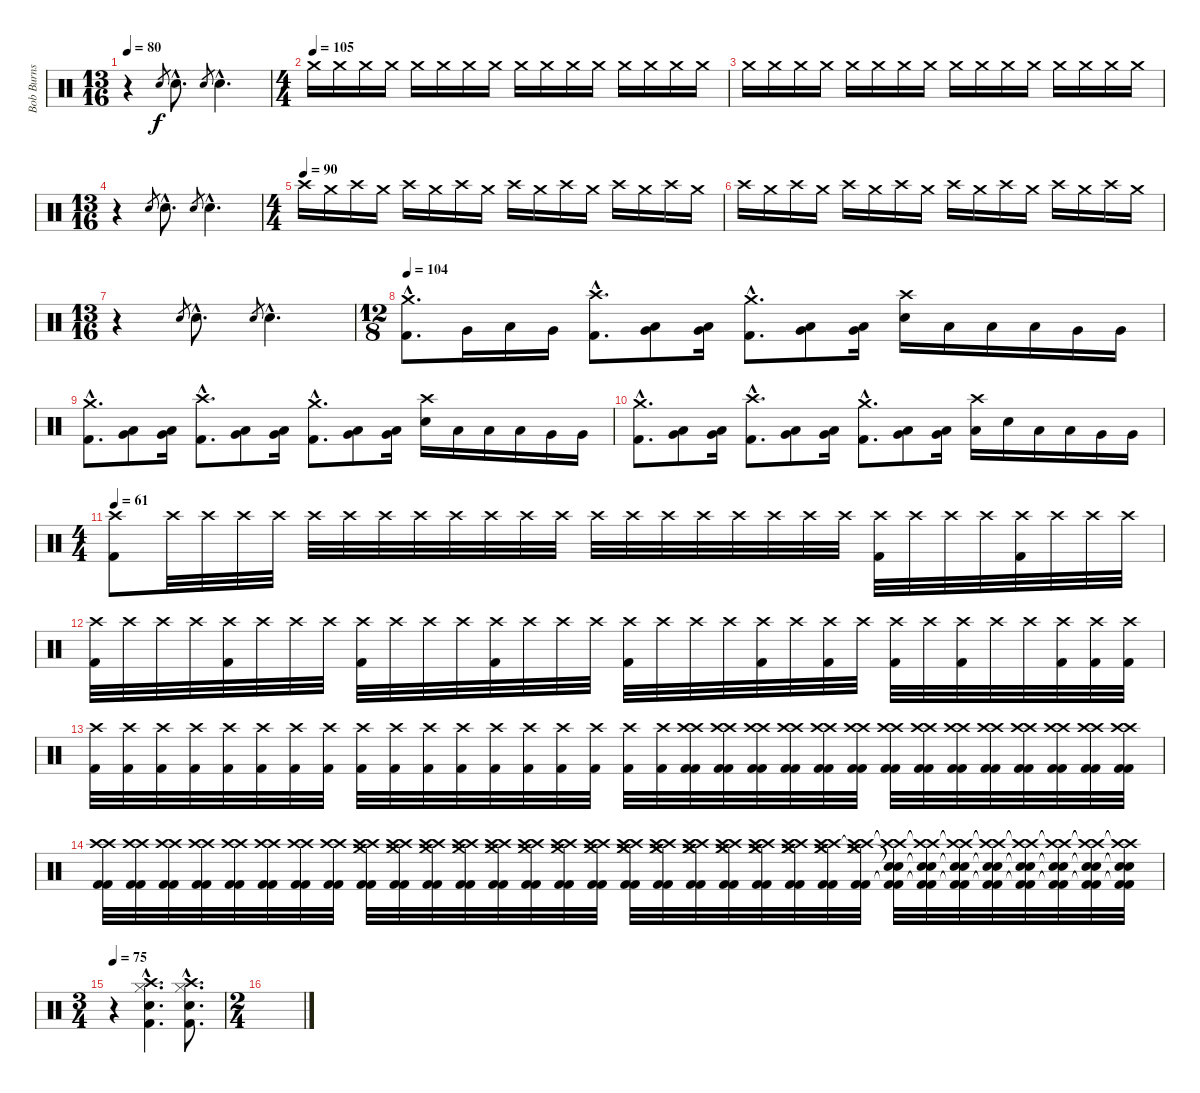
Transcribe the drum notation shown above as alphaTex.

\track ("Bob Burns (Drums)" "Bob Burns ") {instrument percussion}
\staff {score}
\articulation defaults
\ts (13 16)
\tempo 80
\clef neutral
\ks c
r.4{dy f} "Electric Snare (hit)".8{gr} "Electric Snare (hit)"{hac}.8{d} "Electric Snare (hit)".8{gr} "Electric Snare (hit)"{hac}.4{d} |
\ts (4 4)
\tempo (105)
"Crash medium (hit)".16 "Crash medium (hit)".16 "Crash medium (hit)".16 "Crash medium (hit)".16 "Crash medium (hit)".16 "Crash medium (hit)".16 "Crash medium (hit)".16 "Crash medium (hit)".16 "Crash medium (hit)".16 "Crash medium (hit)".16 "Crash medium (hit)".16 "Crash medium (hit)".16 "Crash medium (hit)".16 "Crash medium (hit)".16 "Crash medium (hit)".16 "Crash medium (hit)".16 |
"Crash medium (hit)".16 "Crash medium (hit)".16 "Crash medium (hit)".16 "Crash medium (hit)".16 "Crash medium (hit)".16 "Crash medium (hit)".16 "Crash medium (hit)".16 "Crash medium (hit)".16 "Crash medium (hit)".16 "Crash medium (hit)".16 "Crash medium (hit)".16 "Crash medium (hit)".16 "Crash medium (hit)".16 "Crash medium (hit)".16 "Crash medium (hit)".16 "Crash medium (hit)".16 |
\ts (13 16)
r.4 "Electric Snare (hit)".8{gr} "Electric Snare (hit)"{hac}.8{d} "Electric Snare (hit)".8{gr} "Electric Snare (hit)"{hac}.4{d} |
\ts (4 4)
\tempo (90)
"Crash high (hit)".16 "Crash medium (hit)".16 "Crash high (hit)".16 "Crash medium (hit)".16 "Crash high (hit)".16 "Crash medium (hit)".16 "Crash high (hit)".16 "Crash medium (hit)".16 "Crash high (hit)".16 "Crash medium (hit)".16 "Crash high (hit)".16 "Crash medium (hit)".16 "Crash high (hit)".16 "Crash medium (hit)".16 "Crash high (hit)".16 "Crash medium (hit)".16 |
"Crash high (hit)".16 "Crash medium (hit)".16 "Crash high (hit)".16 "Crash medium (hit)".16 "Crash high (hit)".16 "Crash medium (hit)".16 "Crash high (hit)".16 "Crash medium (hit)".16 "Crash high (hit)".16 "Crash medium (hit)".16 "Crash high (hit)".16 "Crash medium (hit)".16 "Crash high (hit)".16 "Crash medium (hit)".16 "Crash high (hit)".16 "Crash medium (hit)".16 |
\ts (13 16)
r.4 "Electric Snare (hit)".8{gr} "Electric Snare (hit)"{hac}.8{d} "Electric Snare (hit)".8{gr} "Electric Snare (hit)"{hac}.4{d} |
\ts (12 8)
\tempo 104
("Crash medium (hit)"{hac} "Kick (hit) 2"{hac}).8{d} "Very Low Tom (hit)".16 "Low Tom (hit)".16 "Very Low Tom (hit)".16 ("Crash high (hit)"{hac} "Kick (hit) 2"{hac}).8{d} ("Low Tom (hit)" "Very Low Tom (hit)").8 ("Low Tom (hit)" "Very Low Tom (hit)").16 ("Crash medium (hit)"{hac} "Kick (hit) 2"{hac}).8{d} ("Low Tom (hit)" "Very Low Tom (hit)").8 ("Low Tom (hit)" "Very Low Tom (hit)").16 ("Crash high (hit)" "Electric Snare (hit)").16 "Low Tom (hit)".16 "Low Tom (hit)".16 "Low Tom (hit)".16 "Very Low Tom (hit)".16 "Very Low Tom (hit)".16 |
("Crash medium (hit)"{hac} "Kick (hit) 2"{hac}).8{d} ("Low Tom (hit)" "Very Low Tom (hit)").8 ("Low Tom (hit)" "Very Low Tom (hit)").16 ("Crash high (hit)"{hac} "Kick (hit) 2"{hac}).8{d} ("Low Tom (hit)" "Very Low Tom (hit)").8 ("Low Tom (hit)" "Very Low Tom (hit)").16 ("Crash medium (hit)"{hac} "Kick (hit) 2"{hac}).8{d} ("Low Tom (hit)" "Very Low Tom (hit)").8 ("Low Tom (hit)" "Very Low Tom (hit)").16 ("Crash high (hit)" "Electric Snare (hit)").16 "Low Tom (hit)".16 "Low Tom (hit)".16 "Low Tom (hit)".16 "Very Low Tom (hit)".16 "Very Low Tom (hit)".16 |
("Crash medium (hit)"{hac} "Kick (hit) 2"{hac}).8{d} ("Low Tom (hit)" "Very Low Tom (hit)").8 ("Low Tom (hit)" "Very Low Tom (hit)").16 ("Crash high (hit)"{hac} "Kick (hit) 2"{hac}).8{d} ("Low Tom (hit)" "Very Low Tom (hit)").8 ("Low Tom (hit)" "Very Low Tom (hit)").16 ("Crash medium (hit)"{hac} "Kick (hit) 2"{hac}).8{d} ("Low Tom (hit)" "Very Low Tom (hit)").8 ("Low Tom (hit)" "Very Low Tom (hit)").16 ("Crash high (hit)" "Low Tom (hit)").16 "Electric Snare (hit)".16 "Low Tom (hit)".16 "Low Tom (hit)".16 "Very Low Tom (hit)".16 "Very Low Tom (hit)".16 |
\ts (4 4)
\tempo 61
("Crash high (hit)" "Kick (hit) 2").8 "Crash high (hit)".32 "Crash high (hit)".32 "Crash high (hit)".32 "Crash high (hit)".32 "Crash high (hit)".32 "Crash high (hit)".32 "Crash high (hit)".32 "Crash high (hit)".32 "Crash high (hit)".32 "Crash high (hit)".32 "Crash high (hit)".32 "Crash high (hit)".32 "Crash high (hit)".32 "Crash high (hit)".32 "Crash high (hit)".32 "Crash high (hit)".32 "Crash high (hit)".32 "Crash high (hit)".32 "Crash high (hit)".32 "Crash high (hit)".32 ("Crash high (hit)" "Kick (hit) 2").32 "Crash high (hit)".32 "Crash high (hit)".32 "Crash high (hit)".32 ("Crash high (hit)" "Kick (hit) 2").32 "Crash high (hit)".32 "Crash high (hit)".32 "Crash high (hit)".32 |
("Crash high (hit)" "Kick (hit) 2").32 "Crash high (hit)".32 "Crash high (hit)".32 "Crash high (hit)".32 ("Crash high (hit)" "Kick (hit) 2").32 "Crash high (hit)".32 "Crash high (hit)".32 "Crash high (hit)".32 ("Crash high (hit)" "Kick (hit) 2").32 "Crash high (hit)".32 "Crash high (hit)".32 "Crash high (hit)".32 ("Crash high (hit)" "Kick (hit) 2").32 "Crash high (hit)".32 "Crash high (hit)".32 "Crash high (hit)".32 ("Crash high (hit)" "Kick (hit) 2").32 "Crash high (hit)".32 "Crash high (hit)".32 "Crash high (hit)".32 ("Crash high (hit)" "Kick (hit) 2").32 "Crash high (hit)".32 ("Crash high (hit)" "Kick (hit) 2").32 "Crash high (hit)".32 ("Crash high (hit)" "Kick (hit) 2").32 "Crash high (hit)".32 ("Crash high (hit)" "Kick (hit) 2").32 "Crash high (hit)".32 "Crash high (hit)".32 ("Crash high (hit)" "Kick (hit) 2").32 ("Crash high (hit)" "Kick (hit) 2").32 ("Crash high (hit)" "Kick (hit) 2").32 |
("Crash high (hit)" "Kick (hit) 2").32 ("Crash high (hit)" "Kick (hit) 2").32 ("Crash high (hit)" "Kick (hit) 2").32 ("Crash high (hit)" "Kick (hit) 2").32 ("Crash high (hit)" "Kick (hit) 2").32 ("Crash high (hit)" "Kick (hit) 2").32 ("Crash high (hit)" "Kick (hit) 2").32 ("Crash high (hit)" "Kick (hit) 2").32 ("Crash high (hit)" "Kick (hit) 2").32 ("Crash high (hit)" "Kick (hit) 2").32 ("Crash high (hit)" "Kick (hit) 2").32 ("Crash high (hit)" "Kick (hit) 2").32 ("Crash high (hit)" "Kick (hit) 2").32 ("Crash high (hit)" "Kick (hit) 2").32 ("Crash high (hit)" "Kick (hit) 2").32 ("Crash high (hit)" "Kick (hit) 2").32 ("Crash high (hit)" "Kick (hit) 2").32 ("Crash high (hit)" "Kick (hit) 2").32 ("Crash high (hit)" "Crash high (hit)" "Kick (hit) 2" "Kick (hit) 2").32 ("Crash high (hit)" "Crash high (hit)" "Kick (hit) 2" "Kick (hit) 2").32 ("Crash high (hit)" "Crash high (hit)" "Kick (hit) 2" "Kick (hit) 2").32 ("Crash high (hit)" "Crash high (hit)" "Kick (hit) 2" "Kick (hit) 2").32 ("Crash high (hit)" "Crash high (hit)" "Kick (hit) 2" "Kick (hit) 2").32 ("Crash high (hit)" "Crash high (hit)" "Kick (hit) 2" "Kick (hit) 2").32 ("Crash high (hit)" "Crash high (hit)" "Kick (hit) 2" "Kick (hit) 2").32 ("Crash high (hit)" "Crash high (hit)" "Kick (hit) 2" "Kick (hit) 2").32 ("Crash high (hit)" "Crash high (hit)" "Kick (hit) 2" "Kick (hit) 2").32 ("Crash high (hit)" "Crash high (hit)" "Kick (hit) 2" "Kick (hit) 2").32 ("Crash high (hit)" "Crash high (hit)" "Kick (hit) 2" "Kick (hit) 2").32 ("Crash high (hit)" "Crash high (hit)" "Kick (hit) 2" "Kick (hit) 2").32 ("Crash high (hit)" "Crash high (hit)" "Kick (hit) 2" "Kick (hit) 2").32 ("Crash high (hit)" "Crash high (hit)" "Kick (hit) 2" "Kick (hit) 2").32 |
("Crash high (hit)" "Crash high (hit)" "Kick (hit) 2" "Kick (hit) 2").32 ("Crash high (hit)" "Crash high (hit)" "Kick (hit) 2" "Kick (hit) 2").32 ("Crash high (hit)" "Crash high (hit)" "Kick (hit) 2" "Kick (hit) 2").32 ("Crash high (hit)" "Crash high (hit)" "Kick (hit) 2" "Kick (hit) 2").32 ("Crash high (hit)" "Crash high (hit)" "Kick (hit) 2" "Kick (hit) 2").32 ("Crash high (hit)" "Crash high (hit)" "Kick (hit) 2" "Kick (hit) 2").32 ("Crash high (hit)" "Crash high (hit)" "Kick (hit) 2" "Kick (hit) 2").32 ("Crash high (hit)" "Crash high (hit)" "Kick (hit) 2" "Kick (hit) 2").32 ("Crash medium (hit)" "Crash high (hit)" "Crash high (hit)" "Kick (hit) 2" "Kick (hit) 2").32 ("Crash medium (hit)" "Crash high (hit)" "Crash high (hit)" "Kick (hit) 2" "Kick (hit) 2").32 ("Crash medium (hit)" "Crash high (hit)" "Crash high (hit)" "Kick (hit) 2" "Kick (hit) 2").32 ("Crash medium (hit)" "Crash high (hit)" "Crash high (hit)" "Kick (hit) 2" "Kick (hit) 2").32 ("Crash medium (hit)" "Crash high (hit)" "Crash high (hit)" "Kick (hit) 2" "Kick (hit) 2").32 ("Crash medium (hit)" "Crash high (hit)" "Crash high (hit)" "Kick (hit) 2" "Kick (hit) 2").32 ("Crash medium (hit)" "Crash high (hit)" "Crash high (hit)" "Kick (hit) 2" "Kick (hit) 2").32 ("Crash medium (hit)" "Crash high (hit)" "Crash high (hit)" "Kick (hit) 2" "Kick (hit) 2").32 ("Crash medium (hit)" "Crash medium (hit)" "Crash high (hit)" "Crash high (hit)" "Kick (hit) 2" "Kick (hit) 2").32 ("Crash medium (hit)" "Crash medium (hit)" "Crash high (hit)" "Crash high (hit)" "Kick (hit) 2" "Kick (hit) 2").32 ("Crash medium (hit)" "Crash medium (hit)" "Crash high (hit)" "Crash high (hit)" "Kick (hit) 2" "Kick (hit) 2").32 ("Crash medium (hit)" "Crash medium (hit)" "Crash high (hit)" "Crash high (hit)" "Kick (hit) 2" "Kick (hit) 2").32 ("Crash medium (hit)" "Crash medium (hit)" "Crash high (hit)" "Crash high (hit)" "Kick (hit) 2" "Kick (hit) 2").32 ("Crash medium (hit)" "Crash medium (hit)" "Crash high (hit)" "Crash high (hit)" "Kick (hit) 2" "Kick (hit) 2").32 ("Crash medium (hit)" "Crash medium (hit)" "Crash high (hit)" "Crash high (hit)" "Kick (hit) 2" "Kick (hit) 2").32 ("Crash medium (hit)"{t} "Crash medium (hit)" "Crash high (hit)" "Crash high (hit)" "Kick (hit) 2" "Kick (hit) 2").32 ("Snare (hit)"{t} "Snare (hit)"{t} "Crash high (hit)"{t} "Crash high (hit)"{t} "Kick (hit) 2"{t} "Kick (hit) 2"{t}).32 ("Snare (hit)"{t} "Snare (hit)"{t} "Crash high (hit)"{t} "Crash high (hit)"{t} "Kick (hit) 2"{t} "Kick (hit) 2"{t}).32 ("Snare (hit)"{t} "Snare (hit)"{t} "Crash high (hit)"{t} "Crash high (hit)"{t} "Kick (hit) 2"{t} "Kick (hit) 2"{t}).32 ("Snare (hit)"{t} "Snare (hit)"{t} "Crash high (hit)"{t} "Crash high (hit)"{t} "Kick (hit) 2"{t} "Kick (hit) 2"{t}).32 ("Snare (hit)"{t} "Snare (hit)"{t} "Crash high (hit)"{t} "Crash high (hit)"{t} "Kick (hit) 2"{t} "Kick (hit) 2"{t}).32 ("Snare (hit)"{t} "Snare (hit)"{t} "Crash high (hit)"{t} "Crash high (hit)"{t} "Kick (hit) 2"{t} "Kick (hit) 2"{t}).32 ("Snare (hit)"{t} "Snare (hit)"{t} "Crash high (hit)"{t} "Crash high (hit)"{t} "Kick (hit) 2"{t} "Kick (hit) 2"{t}).32 ("Snare (hit)"{t} "Snare (hit)"{t} "Crash high (hit)"{t} "Crash high (hit)"{t} "Kick (hit) 2"{t} "Kick (hit) 2"{t}).32 |
\ts (3 4)
\tempo 75
r.4 ("Hi-Hat (closed)"{hac} "Crash high (hit)"{hac} "Electric Snare (hit)"{hac} "Kick (hit) 2"{hac}).4{d} ("Hi-Hat (closed)"{hac} "Crash high (hit)"{hac} "Electric Snare (hit)"{hac} "Kick (hit) 2"{hac}).8{d} |
\ts (2 4)
